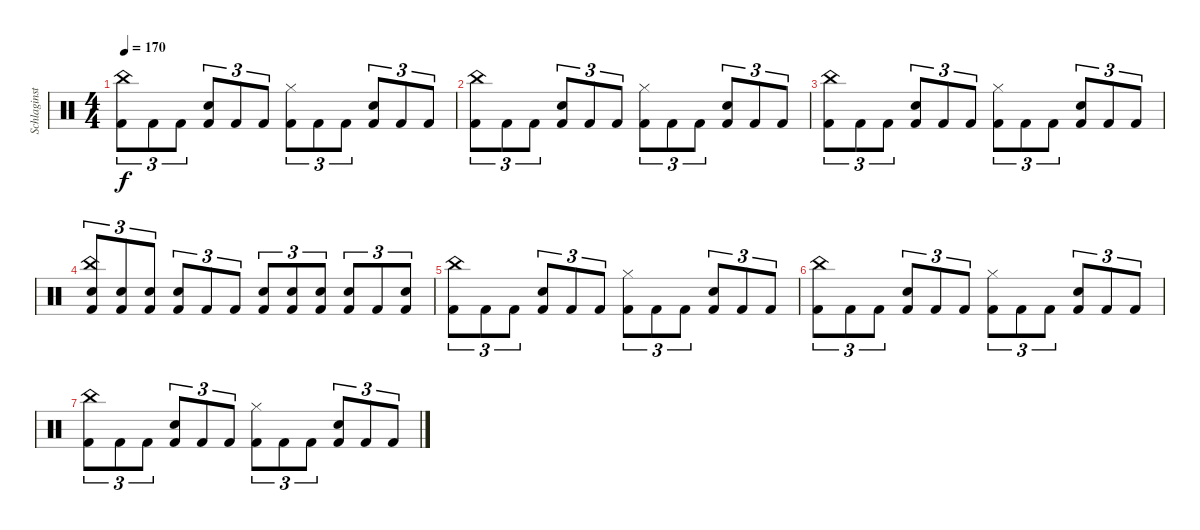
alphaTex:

\track ("Schlaginstrumente - Auswahl" "Schlaginst") {instrument percussion}
\staff {score}
\articulation defaults
\ts (4 4)
\tempo 170
\clef neutral
\ks c
("Kick (hit) 2" "China (hit)").8{tu (3 2) dy f} "Kick (hit) 2".8{tu (3 2)} "Kick (hit) 2".8{tu (3 2)} ("Kick (hit) 2" "Snare (hit) 2").8{tu (3 2)} "Kick (hit) 2".8{tu (3 2)} "Kick (hit) 2".8{tu (3 2)} ("Kick (hit) 2" "Hi-Hat (closed)").8{tu (3 2)} "Kick (hit) 2".8{tu (3 2)} "Kick (hit) 2".8{tu (3 2)} ("Kick (hit) 2" "Snare (hit) 2").8{tu (3 2)} "Kick (hit) 2".8{tu (3 2)} "Kick (hit) 2".8{tu (3 2)} |
("Kick (hit) 2" "China (hit)").8{tu (3 2)} "Kick (hit) 2".8{tu (3 2)} "Kick (hit) 2".8{tu (3 2)} ("Kick (hit) 2" "Snare (hit) 2").8{tu (3 2)} "Kick (hit) 2".8{tu (3 2)} "Kick (hit) 2".8{tu (3 2)} ("Kick (hit) 2" "Hi-Hat (closed)").8{tu (3 2)} "Kick (hit) 2".8{tu (3 2)} "Kick (hit) 2".8{tu (3 2)} ("Kick (hit) 2" "Snare (hit) 2").8{tu (3 2)} "Kick (hit) 2".8{tu (3 2)} "Kick (hit) 2".8{tu (3 2)} |
("Kick (hit) 2" "China (hit)").8{tu (3 2)} "Kick (hit) 2".8{tu (3 2)} "Kick (hit) 2".8{tu (3 2)} ("Kick (hit) 2" "Snare (hit) 2").8{tu (3 2)} "Kick (hit) 2".8{tu (3 2)} "Kick (hit) 2".8{tu (3 2)} ("Kick (hit) 2" "Hi-Hat (closed)").8{tu (3 2)} "Kick (hit) 2".8{tu (3 2)} "Kick (hit) 2".8{tu (3 2)} ("Kick (hit) 2" "Snare (hit) 2").8{tu (3 2)} "Kick (hit) 2".8{tu (3 2)} "Kick (hit) 2".8{tu (3 2)} |
("Kick (hit) 2" "Snare (hit) 2" "China (hit)").8{tu (3 2)} ("Kick (hit) 2" "Snare (hit) 2").8{tu (3 2)} ("Kick (hit) 2" "Snare (hit) 2").8{tu (3 2)} ("Kick (hit) 2" "Snare (hit) 2").8{tu (3 2)} "Kick (hit) 2".8{tu (3 2)} "Kick (hit) 2".8{tu (3 2)} ("Kick (hit) 2" "Snare (hit) 2").8{tu (3 2)} ("Kick (hit) 2" "Snare (hit) 2").8{tu (3 2)} ("Kick (hit) 2" "Snare (hit) 2").8{tu (3 2)} ("Kick (hit) 2" "Snare (hit) 2").8{tu (3 2)} "Kick (hit) 2".8{tu (3 2)} ("Kick (hit) 2" "Snare (hit) 2").8{tu (3 2)} |
("Kick (hit) 2" "China (hit)").8{tu (3 2)} "Kick (hit) 2".8{tu (3 2)} "Kick (hit) 2".8{tu (3 2)} ("Kick (hit) 2" "Snare (hit) 2").8{tu (3 2)} "Kick (hit) 2".8{tu (3 2)} "Kick (hit) 2".8{tu (3 2)} ("Kick (hit) 2" "Hi-Hat (closed)").8{tu (3 2)} "Kick (hit) 2".8{tu (3 2)} "Kick (hit) 2".8{tu (3 2)} ("Kick (hit) 2" "Snare (hit) 2").8{tu (3 2)} "Kick (hit) 2".8{tu (3 2)} "Kick (hit) 2".8{tu (3 2)} |
("Kick (hit) 2" "China (hit)").8{tu (3 2)} "Kick (hit) 2".8{tu (3 2)} "Kick (hit) 2".8{tu (3 2)} ("Kick (hit) 2" "Snare (hit) 2").8{tu (3 2)} "Kick (hit) 2".8{tu (3 2)} "Kick (hit) 2".8{tu (3 2)} ("Kick (hit) 2" "Hi-Hat (closed)").8{tu (3 2)} "Kick (hit) 2".8{tu (3 2)} "Kick (hit) 2".8{tu (3 2)} ("Kick (hit) 2" "Snare (hit) 2").8{tu (3 2)} "Kick (hit) 2".8{tu (3 2)} "Kick (hit) 2".8{tu (3 2)} |
("Kick (hit) 2" "China (hit)").8{tu (3 2)} "Kick (hit) 2".8{tu (3 2)} "Kick (hit) 2".8{tu (3 2)} ("Kick (hit) 2" "Snare (hit) 2").8{tu (3 2)} "Kick (hit) 2".8{tu (3 2)} "Kick (hit) 2".8{tu (3 2)} ("Kick (hit) 2" "Hi-Hat (closed)").8{tu (3 2)} "Kick (hit) 2".8{tu (3 2)} "Kick (hit) 2".8{tu (3 2)} ("Kick (hit) 2" "Snare (hit) 2").8{tu (3 2)} "Kick (hit) 2".8{tu (3 2)} "Kick (hit) 2".8{tu (3 2)}
